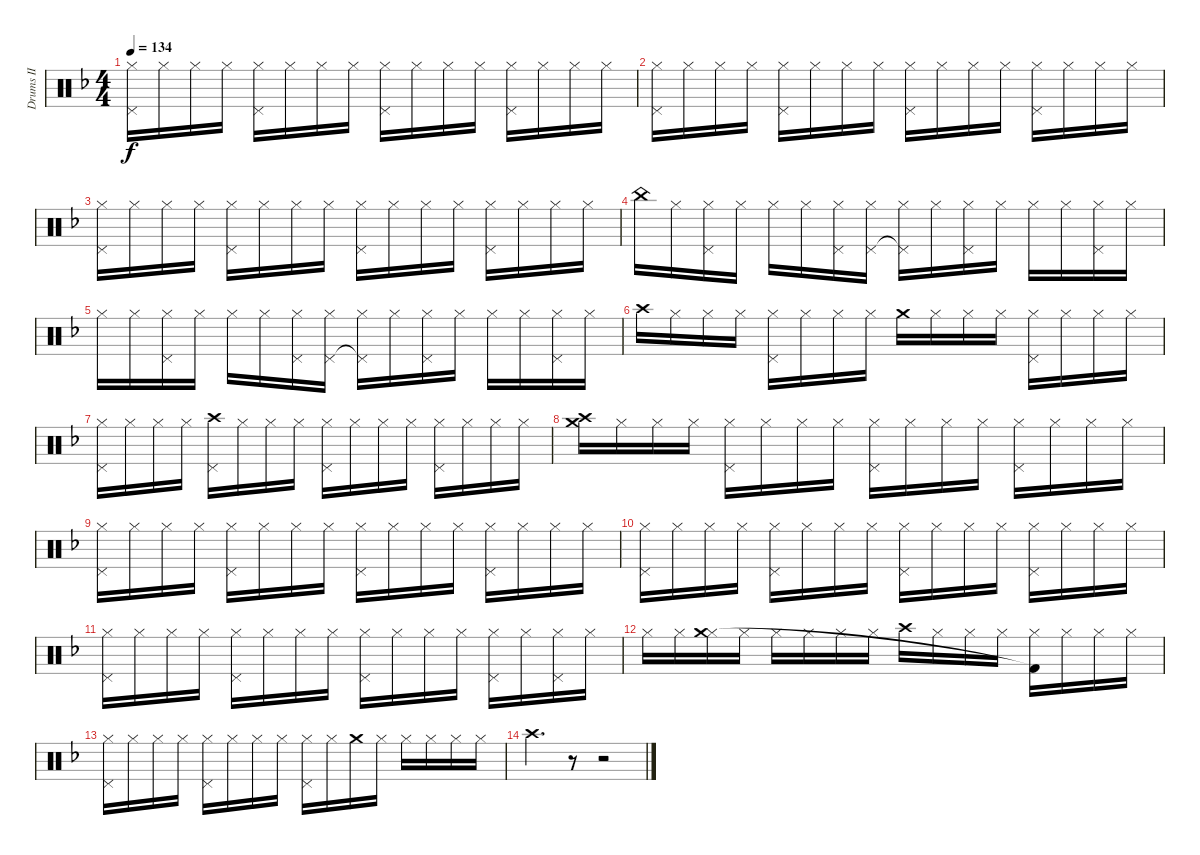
\track ("Drums II" "Drums II") {instrument percussion}
\staff {score}
\articulation defaults
\ts (4 4)
\tempo 134
\clef neutral
\ks f
("Hi-Hat (closed)" "Pedal Hi-Hat (hit)").16{dy f} "Hi-Hat (closed)".16 "Hi-Hat (closed)".16 "Hi-Hat (closed)".16 ("Hi-Hat (closed)" "Pedal Hi-Hat (hit)").16 "Hi-Hat (closed)".16 "Hi-Hat (closed)".16 "Hi-Hat (closed)".16 ("Hi-Hat (closed)" "Pedal Hi-Hat (hit)").16 "Hi-Hat (closed)".16 "Hi-Hat (closed)".16 "Hi-Hat (closed)".16 ("Hi-Hat (closed)" "Pedal Hi-Hat (hit)").16 "Hi-Hat (closed)".16 "Hi-Hat (closed)".16 "Hi-Hat (closed)".16 |
("Hi-Hat (closed)" "Pedal Hi-Hat (hit)").16 "Hi-Hat (closed)".16 "Hi-Hat (closed)".16 "Hi-Hat (closed)".16 ("Hi-Hat (closed)" "Pedal Hi-Hat (hit)").16 "Hi-Hat (closed)".16 "Hi-Hat (closed)".16 "Hi-Hat (closed)".16 ("Hi-Hat (closed)" "Pedal Hi-Hat (hit)").16 "Hi-Hat (closed)".16 "Hi-Hat (closed)".16 "Hi-Hat (closed)".16 ("Hi-Hat (closed)" "Pedal Hi-Hat (hit)").16 "Hi-Hat (closed)".16 "Hi-Hat (closed)".16 "Hi-Hat (closed)".16 |
("Hi-Hat (closed)" "Pedal Hi-Hat (hit)").16 "Hi-Hat (closed)".16 "Hi-Hat (closed)".16 "Hi-Hat (closed)".16 ("Hi-Hat (closed)" "Pedal Hi-Hat (hit)").16 "Hi-Hat (closed)".16 "Hi-Hat (closed)".16 "Hi-Hat (closed)".16 ("Hi-Hat (closed)" "Pedal Hi-Hat (hit)").16 "Hi-Hat (closed)".16 "Hi-Hat (closed)".16 "Hi-Hat (closed)".16 ("Hi-Hat (closed)" "Pedal Hi-Hat (hit)").16 "Hi-Hat (closed)".16 "Hi-Hat (closed)".16 "Hi-Hat (closed)".16 |
"China (hit)".16 "Hi-Hat (closed)".16 ("Hi-Hat (closed)" "Pedal Hi-Hat (hit)").16 "Hi-Hat (closed)".16 "Hi-Hat (closed)".16 "Hi-Hat (closed)".16 ("Hi-Hat (closed)" "Pedal Hi-Hat (hit)").16 ("Hi-Hat (closed)" "Pedal Hi-Hat (hit)").16 ("Hi-Hat (closed)" "Pedal Hi-Hat (hit)"{t}).16 "Hi-Hat (closed)".16 ("Hi-Hat (closed)" "Pedal Hi-Hat (hit)").16 "Hi-Hat (closed)".16 "Hi-Hat (closed)".16 "Hi-Hat (closed)".16 ("Hi-Hat (closed)" "Pedal Hi-Hat (hit)").16 "Hi-Hat (closed)".16 |
"Hi-Hat (closed)".16 "Hi-Hat (closed)".16 ("Hi-Hat (closed)" "Pedal Hi-Hat (hit)").16 "Hi-Hat (closed)".16 "Hi-Hat (closed)".16 "Hi-Hat (closed)".16 ("Hi-Hat (closed)" "Pedal Hi-Hat (hit)").16 ("Hi-Hat (closed)" "Pedal Hi-Hat (hit)").16 ("Hi-Hat (closed)" "Pedal Hi-Hat (hit)"{t}).16 "Hi-Hat (closed)".16 ("Hi-Hat (closed)" "Pedal Hi-Hat (hit)").16 "Hi-Hat (closed)".16 "Hi-Hat (closed)".16 "Hi-Hat (closed)".16 ("Hi-Hat (closed)" "Pedal Hi-Hat (hit)").16 "Hi-Hat (closed)".16 |
"Crash high (hit)".16 "Hi-Hat (closed)".16 "Hi-Hat (closed)".16 "Hi-Hat (closed)".16 ("Hi-Hat (closed)" "Pedal Hi-Hat (hit)").16 "Hi-Hat (closed)".16 "Hi-Hat (closed)".16 "Hi-Hat (closed)".16 "Crash medium (hit)".16 "Hi-Hat (closed)".16 "Hi-Hat (closed)".16 "Hi-Hat (closed)".16 ("Hi-Hat (closed)" "Pedal Hi-Hat (hit)").16 "Hi-Hat (closed)".16 "Hi-Hat (closed)".16 "Hi-Hat (closed)".16 |
("Hi-Hat (closed)" "Pedal Hi-Hat (hit)").16 "Hi-Hat (closed)".16 "Hi-Hat (closed)".16 "Hi-Hat (closed)".16 ("Crash high (hit)" "Pedal Hi-Hat (hit)").16 "Hi-Hat (closed)".16 "Hi-Hat (closed)".16 "Hi-Hat (closed)".16 ("Hi-Hat (closed)" "Pedal Hi-Hat (hit)").16 "Hi-Hat (closed)".16 "Hi-Hat (closed)".16 "Hi-Hat (closed)".16 ("Hi-Hat (closed)" "Pedal Hi-Hat (hit)").16 "Hi-Hat (closed)".16 "Hi-Hat (closed)".16 "Hi-Hat (closed)".16 |
("Crash medium (hit)" "Crash high (hit)").16 "Hi-Hat (closed)".16 "Hi-Hat (closed)".16 "Hi-Hat (closed)".16 ("Hi-Hat (closed)" "Pedal Hi-Hat (hit)").16 "Hi-Hat (closed)".16 "Hi-Hat (closed)".16 "Hi-Hat (closed)".16 ("Hi-Hat (closed)" "Pedal Hi-Hat (hit)").16 "Hi-Hat (closed)".16 "Hi-Hat (closed)".16 "Hi-Hat (closed)".16 ("Hi-Hat (closed)" "Pedal Hi-Hat (hit)").16 "Hi-Hat (closed)".16 "Hi-Hat (closed)".16 "Hi-Hat (closed)".16 |
("Hi-Hat (closed)" "Pedal Hi-Hat (hit)").16 "Hi-Hat (closed)".16 "Hi-Hat (closed)".16 "Hi-Hat (closed)".16 ("Hi-Hat (closed)" "Pedal Hi-Hat (hit)").16 "Hi-Hat (closed)".16 "Hi-Hat (closed)".16 "Hi-Hat (closed)".16 ("Hi-Hat (closed)" "Pedal Hi-Hat (hit)").16 "Hi-Hat (closed)".16 "Hi-Hat (closed)".16 "Hi-Hat (closed)".16 ("Hi-Hat (closed)" "Pedal Hi-Hat (hit)").16 "Hi-Hat (closed)".16 "Hi-Hat (closed)".16 "Hi-Hat (closed)".16 |
("Hi-Hat (closed)" "Pedal Hi-Hat (hit)").16 "Hi-Hat (closed)".16 "Hi-Hat (closed)".16 "Hi-Hat (closed)".16 ("Hi-Hat (closed)" "Pedal Hi-Hat (hit)").16 "Hi-Hat (closed)".16 "Hi-Hat (closed)".16 "Hi-Hat (closed)".16 ("Hi-Hat (closed)" "Pedal Hi-Hat (hit)").16 "Hi-Hat (closed)".16 "Hi-Hat (closed)".16 "Hi-Hat (closed)".16 ("Hi-Hat (closed)" "Pedal Hi-Hat (hit)").16 "Hi-Hat (closed)".16 "Hi-Hat (closed)".16 "Hi-Hat (closed)".16 |
("Hi-Hat (closed)" "Pedal Hi-Hat (hit)").16 "Hi-Hat (closed)".16 "Hi-Hat (closed)".16 "Hi-Hat (closed)".16 ("Hi-Hat (closed)" "Pedal Hi-Hat (hit)").16 "Hi-Hat (closed)".16 "Hi-Hat (closed)".16 "Hi-Hat (closed)".16 ("Hi-Hat (closed)" "Pedal Hi-Hat (hit)").16 "Hi-Hat (closed)".16 "Hi-Hat (closed)".16 "Hi-Hat (closed)".16 ("Hi-Hat (closed)" "Pedal Hi-Hat (hit)").16 "Hi-Hat (closed)".16 ("Hi-Hat (closed)" "Pedal Hi-Hat (hit)").16 "Hi-Hat (closed)".16 |
"Hi-Hat (closed)".16 "Hi-Hat (closed)".16 ("Hi-Hat (closed)" "Crash medium (hit)").16 "Hi-Hat (closed)".16 "Hi-Hat (closed)".16 "Hi-Hat (closed)".16 "Hi-Hat (closed)".16 "Hi-Hat (closed)".16 "Crash high (hit)".16 "Hi-Hat (closed)".16 "Hi-Hat (closed)".16 "Hi-Hat (closed)".16 ("Hi-Hat (closed)" "Kick (hit) 2"{t}).16 "Hi-Hat (closed)".16 "Hi-Hat (closed)".16 "Hi-Hat (closed)".16 |
("Hi-Hat (closed)" "Pedal Hi-Hat (hit)").16 "Hi-Hat (closed)".16 "Hi-Hat (closed)".16 "Hi-Hat (closed)".16 ("Hi-Hat (closed)" "Pedal Hi-Hat (hit)").16 "Hi-Hat (closed)".16 "Hi-Hat (closed)".16 "Hi-Hat (closed)".16 ("Hi-Hat (closed)" "Pedal Hi-Hat (hit)").16 "Hi-Hat (closed)".16 "Crash medium (hit)".16 "Hi-Hat (closed)".16 "Hi-Hat (closed)".16 "Hi-Hat (closed)".16 "Hi-Hat (closed)".16 "Hi-Hat (closed)".16 |
"Crash high (hit)".4{d} r.8 r.2
